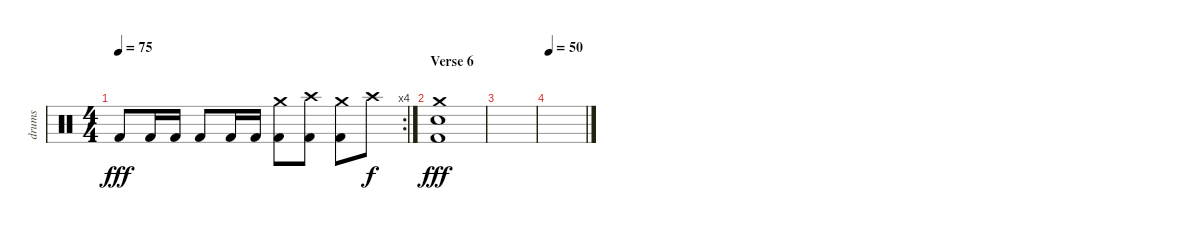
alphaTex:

\track ("drums" "drums") {instrument percussion}
\staff {score}
\articulation defaults
\rc 4
\ts (4 4)
\tempo 75
\clef neutral
\ks c "Kick (hit) 2".8{dy fff} "Kick (hit) 2".16 "Kick (hit) 2".16 "Kick (hit) 2".8 "Kick (hit) 2".16 "Kick (hit) 2".16
("Crash medium (hit)" "Kick (hit) 2").8 ("Crash high (hit)" "Kick (hit) 2").8 ("Crash medium (hit)" "Kick (hit) 2").8 "Crash high (hit)".8{dy f} |
\section ("" "Verse 6")
("Crash medium (hit)" "Electric Snare (hit)" "Kick (hit) 2").1{dy fff} |
|
\tempo 50
